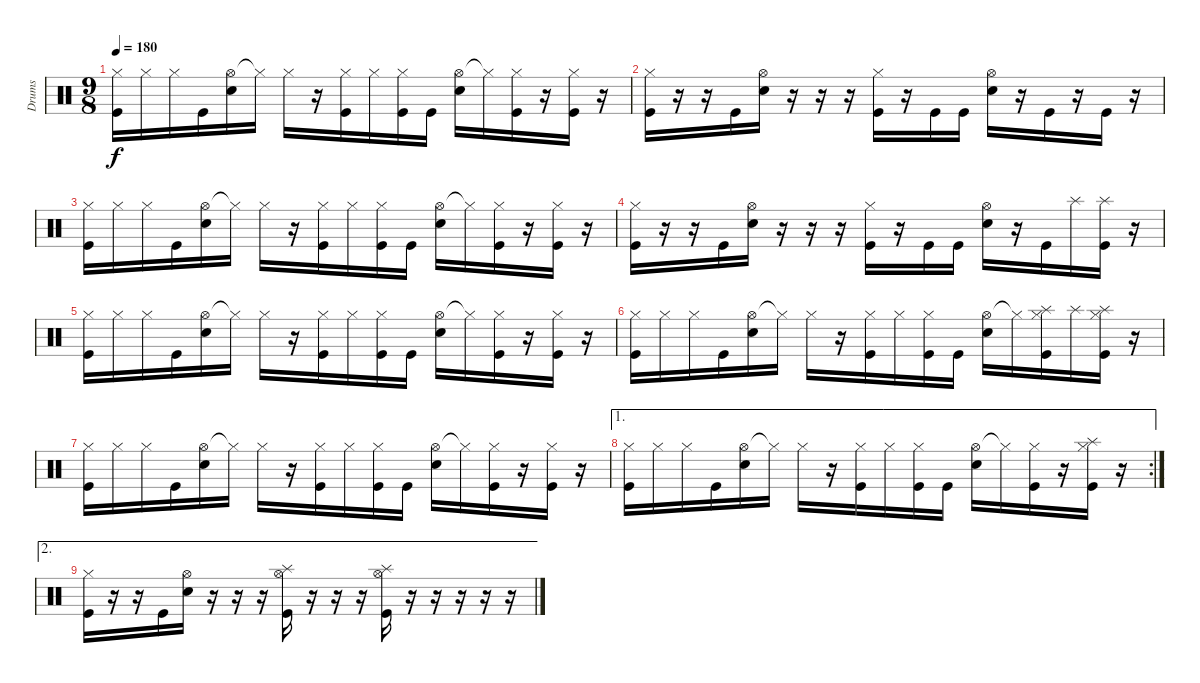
\track ("Drums" "Drums") {instrument percussion}
\staff {score}
\articulation defaults
\ts (9 8)
\tempo 180
\clef neutral
\ks c
("Hi-Hat (closed)" "Kick (hit)").16{dy f} "Hi-Hat (closed)".16 "Hi-Hat (closed)".16 "Kick (hit)".16 ("Hi-Hat (open)" "Snare (hit) 2").16 "Hi-Hat (closed)"{t}.16 "Hi-Hat (closed)".16 r.16 ("Hi-Hat (closed)" "Kick (hit)").16 "Hi-Hat (closed)".16 ("Hi-Hat (closed)" "Kick (hit)").16 "Kick (hit)".16 ("Hi-Hat (open)" "Snare (hit) 2").16 "Hi-Hat (closed)"{t}.16 ("Hi-Hat (closed)" "Kick (hit)").16 r.16 ("Hi-Hat (closed)" "Kick (hit)").16 r.16 |
("Hi-Hat (closed)" "Kick (hit)").16 r.16 r.16 "Kick (hit)".16 ("Hi-Hat (open)" "Snare (hit) 2").16 r.16 r.16 r.16 ("Hi-Hat (closed)" "Kick (hit)").16 r.16 "Kick (hit)".16 "Kick (hit)".16 ("Hi-Hat (open)" "Snare (hit) 2").16 r.16 "Kick (hit)".16 r.16 "Kick (hit)".16 r.16 |
("Hi-Hat (closed)" "Kick (hit)").16 "Hi-Hat (closed)".16 "Hi-Hat (closed)".16 "Kick (hit)".16 ("Hi-Hat (open)" "Snare (hit) 2").16 "Hi-Hat (closed)"{t}.16 "Hi-Hat (closed)".16 r.16 ("Hi-Hat (closed)" "Kick (hit)").16 "Hi-Hat (closed)".16 ("Hi-Hat (closed)" "Kick (hit)").16 "Kick (hit)".16 ("Hi-Hat (open)" "Snare (hit) 2").16 "Hi-Hat (closed)"{t}.16 ("Hi-Hat (closed)" "Kick (hit)").16 r.16 ("Hi-Hat (closed)" "Kick (hit)").16 r.16 |
("Hi-Hat (closed)" "Kick (hit)").16 r.16 r.16 "Kick (hit)".16 ("Hi-Hat (open)" "Snare (hit) 2").16 r.16 r.16 r.16 ("Hi-Hat (closed)" "Kick (hit)").16 r.16 "Kick (hit)".16 "Kick (hit)".16 ("Hi-Hat (open)" "Snare (hit) 2").16 r.16 "Kick (hit)".16 "Splash (hit)".16 ("Splash (hit)" "Kick (hit)").16 r.16 |
("Hi-Hat (closed)" "Kick (hit)").16 "Hi-Hat (closed)".16 "Hi-Hat (closed)".16 "Kick (hit)".16 ("Hi-Hat (open)" "Snare (hit) 2").16 "Hi-Hat (closed)"{t}.16 "Hi-Hat (closed)".16 r.16 ("Hi-Hat (closed)" "Kick (hit)").16 "Hi-Hat (closed)".16 ("Hi-Hat (closed)" "Kick (hit)").16 "Kick (hit)".16 ("Hi-Hat (open)" "Snare (hit) 2").16 "Hi-Hat (closed)"{t}.16 ("Hi-Hat (closed)" "Kick (hit)").16 r.16 ("Hi-Hat (closed)" "Kick (hit)").16 r.16 |
("Hi-Hat (closed)" "Kick (hit)").16 "Hi-Hat (closed)".16 "Hi-Hat (closed)".16 "Kick (hit)".16 ("Hi-Hat (open)" "Snare (hit) 2").16 "Hi-Hat (closed)"{t}.16 "Hi-Hat (closed)".16 r.16 ("Hi-Hat (closed)" "Kick (hit)").16 "Hi-Hat (closed)".16 ("Hi-Hat (closed)" "Kick (hit)").16 "Kick (hit)".16 ("Hi-Hat (open)" "Snare (hit) 2").16 "Hi-Hat (closed)"{t}.16 ("Splash (hit)" "Hi-Hat (closed)" "Kick (hit)").16 "Splash (hit)".16 ("Splash (hit)" "Hi-Hat (closed)" "Kick (hit)").16 r.16 |
("Hi-Hat (closed)" "Kick (hit)").16 "Hi-Hat (closed)".16 "Hi-Hat (closed)".16 "Kick (hit)".16 ("Hi-Hat (open)" "Snare (hit) 2").16 "Hi-Hat (closed)"{t}.16 "Hi-Hat (closed)".16 r.16 ("Hi-Hat (closed)" "Kick (hit)").16 "Hi-Hat (closed)".16 ("Hi-Hat (closed)" "Kick (hit)").16 "Kick (hit)".16 ("Hi-Hat (open)" "Snare (hit) 2").16 "Hi-Hat (closed)"{t}.16 ("Hi-Hat (closed)" "Kick (hit)").16 r.16 ("Hi-Hat (closed)" "Kick (hit)").16 r.16 |
\ae 1
\rc 2
("Hi-Hat (closed)" "Kick (hit)").16 "Hi-Hat (closed)".16 "Hi-Hat (closed)".16 "Kick (hit)".16 ("Hi-Hat (open)" "Snare (hit) 2").16 "Hi-Hat (closed)"{t}.16 "Hi-Hat (closed)".16 r.16 ("Hi-Hat (closed)" "Kick (hit)").16 "Hi-Hat (closed)".16 ("Hi-Hat (closed)" "Kick (hit)").16 "Kick (hit)".16 ("Hi-Hat (open)" "Snare (hit) 2").16 "Hi-Hat (closed)"{t}.16 ("Hi-Hat (closed)" "Kick (hit)").16 r.16 ("Splash (hit)" "Hi-Hat (closed)" "Kick (hit)").16 r.16 |
\ae 2
("Hi-Hat (closed)" "Kick (hit)").16 r.16 r.16 "Kick (hit)".16 ("Hi-Hat (open)" "Snare (hit) 2").16 r.16 r.16 r.16 ("Splash (hit)" "Hi-Hat (open)" "Kick (hit)").16 r.16 r.16 r.16 ("Splash (hit)" "Hi-Hat (open)" "Kick (hit)").16 r.16 r.16 r.16 r.16 r.16
